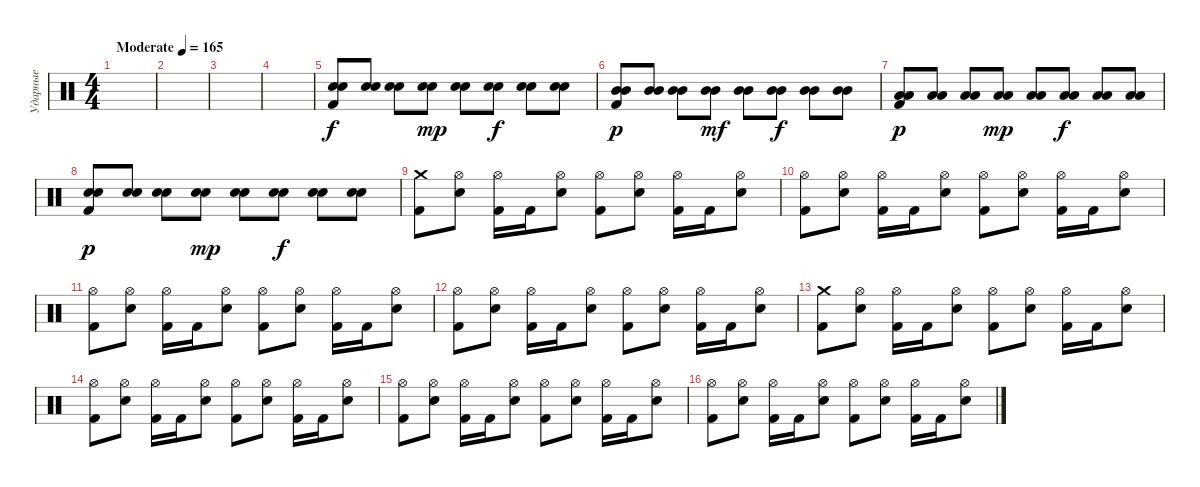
\track ("Ударные" "Ударные") {instrument percussion}
\staff {score}
\articulation defaults
\ts (4 4)
\tempo (165 "Moderate")
\clef neutral
\ks c
|
|
|
|
("Electric Snare (hit)" "Electric Snare (hit)" "Kick (hit) 2").8 ("Electric Snare (hit)" "Electric Snare (hit)").8 ("Electric Snare (hit)" "Electric Snare (hit)").8 ("Electric Snare (hit)" "Electric Snare (hit)").8{dy mp} ("Electric Snare (hit)" "Electric Snare (hit)").8 ("Electric Snare (hit)" "Electric Snare (hit)").8{dy f} ("Electric Snare (hit)" "Electric Snare (hit)").8 ("Electric Snare (hit)" "Electric Snare (hit)").8 |
("Mid Tom (hit)" "Mid Tom (hit)" "Kick (hit) 2").8{dy p} ("Mid Tom (hit)" "Mid Tom (hit)").8 ("Mid Tom (hit)" "Mid Tom (hit)").8 ("Mid Tom (hit)" "Mid Tom (hit)").8{dy mf} ("Mid Tom (hit)" "Mid Tom (hit)").8 ("Mid Tom (hit)" "Mid Tom (hit)").8{dy f} ("Mid Tom (hit)" "Mid Tom (hit)").8 ("Mid Tom (hit)" "Mid Tom (hit)").8 |
("Low Tom (hit)" "Low Tom (hit)" "Kick (hit) 2").8{dy p} ("Low Tom (hit)" "Low Tom (hit)").8 ("Low Tom (hit)" "Low Tom (hit)").8 ("Low Tom (hit)" "Low Tom (hit)").8{dy mp} ("Low Tom (hit)" "Low Tom (hit)").8 ("Low Tom (hit)" "Low Tom (hit)").8{dy f} ("Low Tom (hit)" "Low Tom (hit)").8 ("Low Tom (hit)" "Low Tom (hit)").8 |
("Electric Snare (hit)" "Electric Snare (hit)" "Kick (hit) 2").8{dy p} ("Electric Snare (hit)" "Electric Snare (hit)").8 ("Electric Snare (hit)" "Electric Snare (hit)").8 ("Electric Snare (hit)" "Electric Snare (hit)").8{dy mp} ("Electric Snare (hit)" "Electric Snare (hit)").8 ("Electric Snare (hit)" "Electric Snare (hit)").8{dy f} ("Electric Snare (hit)" "Electric Snare (hit)").8 ("Electric Snare (hit)" "Electric Snare (hit)").8 |
("Crash medium (hit)" "Kick (hit) 2").8 ("Hi-Hat (open)" "Electric Snare (hit)").8 ("Hi-Hat (open)" "Kick (hit) 2").16 "Kick (hit) 2".16 ("Hi-Hat (open)" "Electric Snare (hit)").8 ("Hi-Hat (open)" "Kick (hit) 2").8 ("Hi-Hat (open)" "Electric Snare (hit)").8 ("Hi-Hat (open)" "Kick (hit) 2").16 "Kick (hit) 2".16 ("Hi-Hat (open)" "Electric Snare (hit)").8 |
("Hi-Hat (open)" "Kick (hit) 2").8 ("Hi-Hat (open)" "Electric Snare (hit)").8 ("Hi-Hat (open)" "Kick (hit) 2").16 "Kick (hit) 2".16 ("Hi-Hat (open)" "Electric Snare (hit)").8 ("Hi-Hat (open)" "Kick (hit) 2").8 ("Hi-Hat (open)" "Electric Snare (hit)").8 ("Hi-Hat (open)" "Kick (hit) 2").16 "Kick (hit) 2".16 ("Hi-Hat (open)" "Electric Snare (hit)").8 |
("Hi-Hat (open)" "Kick (hit) 2").8 ("Hi-Hat (open)" "Electric Snare (hit)").8 ("Hi-Hat (open)" "Kick (hit) 2").16 "Kick (hit) 2".16 ("Hi-Hat (open)" "Electric Snare (hit)").8 ("Hi-Hat (open)" "Kick (hit) 2").8 ("Hi-Hat (open)" "Electric Snare (hit)").8 ("Hi-Hat (open)" "Kick (hit) 2").16 "Kick (hit) 2".16 ("Hi-Hat (open)" "Electric Snare (hit)").8 |
("Hi-Hat (open)" "Kick (hit) 2").8 ("Hi-Hat (open)" "Electric Snare (hit)").8 ("Hi-Hat (open)" "Kick (hit) 2").16 "Kick (hit) 2".16 ("Hi-Hat (open)" "Electric Snare (hit)").8 ("Hi-Hat (open)" "Kick (hit) 2").8 ("Hi-Hat (open)" "Electric Snare (hit)").8 ("Hi-Hat (open)" "Kick (hit) 2").16 "Kick (hit) 2".16 ("Hi-Hat (open)" "Electric Snare (hit)").8 |
("Crash medium (hit)" "Kick (hit) 2").8 ("Hi-Hat (open)" "Electric Snare (hit)").8 ("Hi-Hat (open)" "Kick (hit) 2").16 "Kick (hit) 2".16 ("Hi-Hat (open)" "Electric Snare (hit)").8 ("Hi-Hat (open)" "Kick (hit) 2").8 ("Hi-Hat (open)" "Electric Snare (hit)").8 ("Hi-Hat (open)" "Kick (hit) 2").16 "Kick (hit) 2".16 ("Hi-Hat (open)" "Electric Snare (hit)").8 |
("Hi-Hat (open)" "Kick (hit) 2").8 ("Hi-Hat (open)" "Electric Snare (hit)").8 ("Hi-Hat (open)" "Kick (hit) 2").16 "Kick (hit) 2".16 ("Hi-Hat (open)" "Electric Snare (hit)").8 ("Hi-Hat (open)" "Kick (hit) 2").8 ("Hi-Hat (open)" "Electric Snare (hit)").8 ("Hi-Hat (open)" "Kick (hit) 2").16 "Kick (hit) 2".16 ("Hi-Hat (open)" "Electric Snare (hit)").8 |
("Hi-Hat (open)" "Kick (hit) 2").8 ("Hi-Hat (open)" "Electric Snare (hit)").8 ("Hi-Hat (open)" "Kick (hit) 2").16 "Kick (hit) 2".16 ("Hi-Hat (open)" "Electric Snare (hit)").8 ("Hi-Hat (open)" "Kick (hit) 2").8 ("Hi-Hat (open)" "Electric Snare (hit)").8 ("Hi-Hat (open)" "Kick (hit) 2").16 "Kick (hit) 2".16 ("Hi-Hat (open)" "Electric Snare (hit)").8 |
("Hi-Hat (open)" "Kick (hit) 2").8 ("Hi-Hat (open)" "Electric Snare (hit)").8 ("Hi-Hat (open)" "Kick (hit) 2").16 "Kick (hit) 2".16 ("Hi-Hat (open)" "Electric Snare (hit)").8 ("Hi-Hat (open)" "Kick (hit) 2").8 ("Hi-Hat (open)" "Electric Snare (hit)").8 ("Hi-Hat (open)" "Kick (hit) 2").16 "Kick (hit) 2".16 ("Hi-Hat (open)" "Electric Snare (hit)").8
